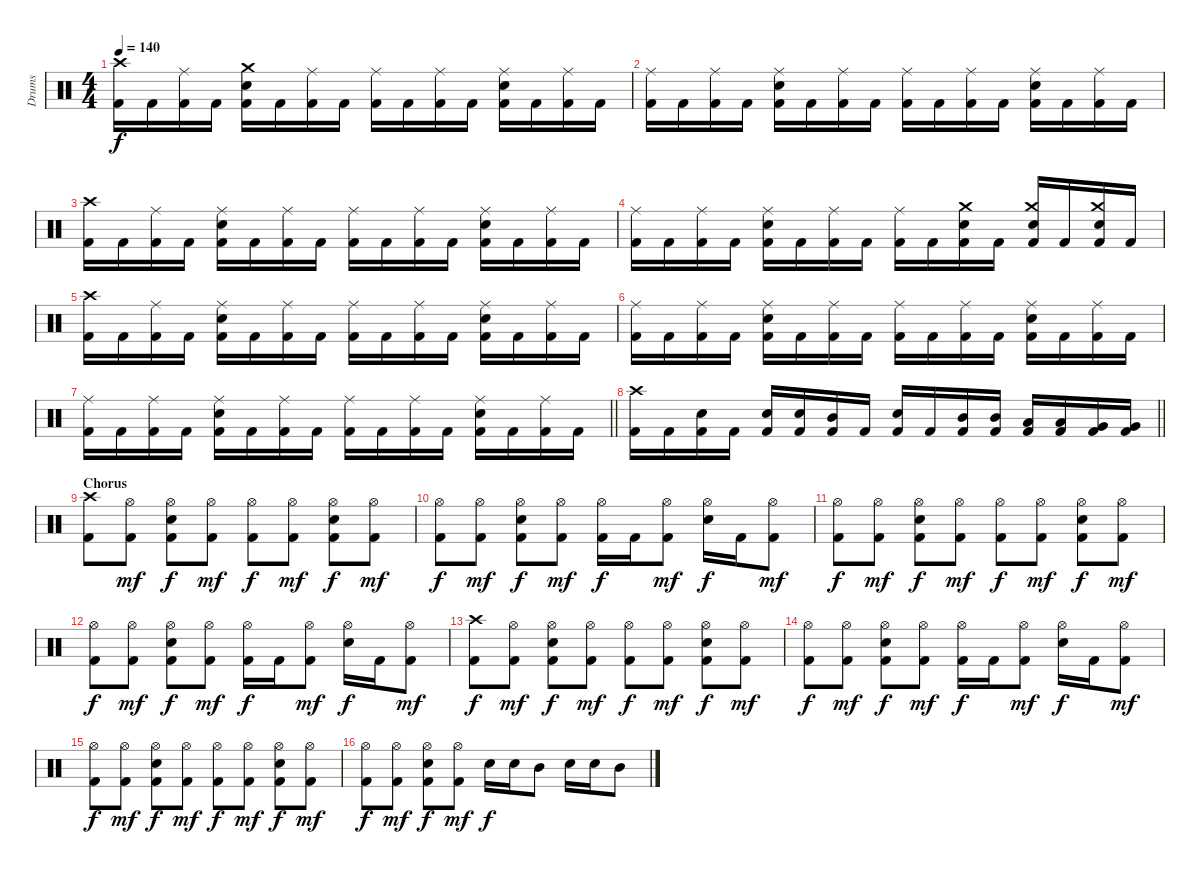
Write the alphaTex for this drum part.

\track ("Drums" "Drums") {instrument percussion}
\staff {score}
\articulation defaults
\ts (4 4)
\tempo 140
\clef neutral
\ks c
("Crash high (hit)" "Kick (hit) 2").16{dy f} "Kick (hit) 2".16 ("Ride (middle)" "Kick (hit) 2").16 "Kick (hit) 2".16 ("Crash medium (hit)" "Electric Snare (hit)" "Kick (hit) 2").16 "Kick (hit) 2".16 ("Ride (middle)" "Kick (hit) 2").16 "Kick (hit) 2".16 ("Ride (middle)" "Kick (hit) 2").16 "Kick (hit) 2".16 ("Ride (middle)" "Kick (hit) 2").16 "Kick (hit) 2".16 ("Ride (middle)" "Electric Snare (hit)" "Kick (hit) 2").16 "Kick (hit) 2".16 ("Ride (middle)" "Kick (hit) 2").16 "Kick (hit) 2".16 |
("Ride (middle)" "Kick (hit) 2").16 "Kick (hit) 2".16 ("Ride (middle)" "Kick (hit) 2").16 "Kick (hit) 2".16 ("Ride (middle)" "Electric Snare (hit)" "Kick (hit) 2").16 "Kick (hit) 2".16 ("Ride (middle)" "Kick (hit) 2").16 "Kick (hit) 2".16 ("Ride (middle)" "Kick (hit) 2").16 "Kick (hit) 2".16 ("Ride (middle)" "Kick (hit) 2").16 "Kick (hit) 2".16 ("Ride (middle)" "Electric Snare (hit)" "Kick (hit) 2").16 "Kick (hit) 2".16 ("Ride (middle)" "Kick (hit) 2").16 "Kick (hit) 2".16 |
("Crash high (hit)" "Kick (hit) 2").16 "Kick (hit) 2".16 ("Ride (middle)" "Kick (hit) 2").16 "Kick (hit) 2".16 ("Ride (middle)" "Electric Snare (hit)" "Kick (hit) 2").16 "Kick (hit) 2".16 ("Ride (middle)" "Kick (hit) 2").16 "Kick (hit) 2".16 ("Ride (middle)" "Kick (hit) 2").16 "Kick (hit) 2".16 ("Ride (middle)" "Kick (hit) 2").16 "Kick (hit) 2".16 ("Ride (middle)" "Electric Snare (hit)" "Kick (hit) 2").16 "Kick (hit) 2".16 ("Ride (middle)" "Kick (hit) 2").16 "Kick (hit) 2".16 |
("Ride (middle)" "Kick (hit) 2").16 "Kick (hit) 2".16 ("Ride (middle)" "Kick (hit) 2").16 "Kick (hit) 2".16 ("Ride (middle)" "Electric Snare (hit)" "Kick (hit) 2").16 "Kick (hit) 2".16 ("Ride (middle)" "Kick (hit) 2").16 "Kick (hit) 2".16 ("Ride (middle)" "Kick (hit) 2").16 "Kick (hit) 2".16 ("Crash medium (hit)" "Electric Snare (hit)" "Kick (hit) 2").16 "Kick (hit) 2".16 ("Crash medium (hit)" "Electric Snare (hit)" "Kick (hit) 2").16 "Kick (hit) 2".16 ("Crash medium (hit)" "Electric Snare (hit)" "Kick (hit) 2").16 "Kick (hit) 2".16 |
("Crash high (hit)" "Kick (hit) 2").16 "Kick (hit) 2".16 ("Ride (middle)" "Kick (hit) 2").16 "Kick (hit) 2".16 ("Ride (middle)" "Electric Snare (hit)" "Kick (hit) 2").16 "Kick (hit) 2".16 ("Ride (middle)" "Kick (hit) 2").16 "Kick (hit) 2".16 ("Ride (middle)" "Kick (hit) 2").16 "Kick (hit) 2".16 ("Ride (middle)" "Kick (hit) 2").16 "Kick (hit) 2".16 ("Ride (middle)" "Electric Snare (hit)" "Kick (hit) 2").16 "Kick (hit) 2".16 ("Ride (middle)" "Kick (hit) 2").16 "Kick (hit) 2".16 |
("Ride (middle)" "Kick (hit) 2").16 "Kick (hit) 2".16 ("Ride (middle)" "Kick (hit) 2").16 "Kick (hit) 2".16 ("Ride (middle)" "Electric Snare (hit)" "Kick (hit) 2").16 "Kick (hit) 2".16 ("Ride (middle)" "Kick (hit) 2").16 "Kick (hit) 2".16 ("Ride (middle)" "Kick (hit) 2").16 "Kick (hit) 2".16 ("Ride (middle)" "Kick (hit) 2").16 "Kick (hit) 2".16 ("Ride (middle)" "Electric Snare (hit)" "Kick (hit) 2").16 "Kick (hit) 2".16 ("Ride (middle)" "Kick (hit) 2").16 "Kick (hit) 2".16 |
\barLineRight lightlight
("Ride (middle)" "Kick (hit) 2").16 "Kick (hit) 2".16 ("Ride (middle)" "Kick (hit) 2").16 "Kick (hit) 2".16 ("Ride (middle)" "Electric Snare (hit)" "Kick (hit) 2").16 "Kick (hit) 2".16 ("Ride (middle)" "Kick (hit) 2").16 "Kick (hit) 2".16 ("Ride (middle)" "Kick (hit) 2").16 "Kick (hit) 2".16 ("Ride (middle)" "Kick (hit) 2").16 "Kick (hit) 2".16 ("Ride (middle)" "Electric Snare (hit)" "Kick (hit) 2").16 "Kick (hit) 2".16 ("Ride (middle)" "Kick (hit) 2").16 "Kick (hit) 2".16 |
\barLineRight lightlight
("Crash high (hit)" "Kick (hit) 2").16 "Kick (hit) 2".16 ("Electric Snare (hit)" "Kick (hit) 2").16 "Kick (hit) 2".16 ("Electric Snare (hit)" "Kick (hit) 2").16 ("Electric Snare (hit)" "Kick (hit) 2").16 ("Mid Tom (hit)" "Kick (hit) 2").16 "Kick (hit) 2".16 ("Electric Snare (hit)" "Kick (hit) 2").16 "Kick (hit) 2".16 ("Mid Tom (hit)" "Kick (hit) 2").16 ("Mid Tom (hit)" "Kick (hit) 2").16 ("Low Tom (hit)" "Kick (hit) 2").16 ("Low Tom (hit)" "Kick (hit) 2").16 ("Very Low Tom (hit)" "Kick (hit) 2").16 ("Very Low Tom (hit)" "Kick (hit) 2").16 |
\section ("" "Chorus")
("Crash high (hit)" "Kick (hit) 2").8 ("Hi-Hat (open)" "Kick (hit) 2").8{dy mf} ("Hi-Hat (open)" "Electric Snare (hit)" "Kick (hit) 2").8{dy f} ("Hi-Hat (open)" "Kick (hit) 2").8{dy mf} ("Hi-Hat (open)" "Kick (hit) 2").8{dy f} ("Hi-Hat (open)" "Kick (hit) 2").8{dy mf} ("Hi-Hat (open)" "Electric Snare (hit)" "Kick (hit) 2").8{dy f} ("Hi-Hat (open)" "Kick (hit) 2").8{dy mf} |
("Hi-Hat (open)" "Kick (hit) 2").8{dy f} ("Hi-Hat (open)" "Kick (hit) 2").8{dy mf} ("Hi-Hat (open)" "Electric Snare (hit)" "Kick (hit) 2").8{dy f} ("Hi-Hat (open)" "Kick (hit) 2").8{dy mf} ("Hi-Hat (open)" "Kick (hit) 2").16{dy f} "Kick (hit) 2".16 ("Hi-Hat (open)" "Kick (hit) 2").8{dy mf} ("Hi-Hat (open)" "Electric Snare (hit)").16{dy f} "Kick (hit) 2".16 ("Hi-Hat (open)" "Kick (hit) 2").8{dy mf} |
("Hi-Hat (open)" "Kick (hit) 2").8{dy f} ("Hi-Hat (open)" "Kick (hit) 2").8{dy mf} ("Hi-Hat (open)" "Electric Snare (hit)" "Kick (hit) 2").8{dy f} ("Hi-Hat (open)" "Kick (hit) 2").8{dy mf} ("Hi-Hat (open)" "Kick (hit) 2").8{dy f} ("Hi-Hat (open)" "Kick (hit) 2").8{dy mf} ("Hi-Hat (open)" "Electric Snare (hit)" "Kick (hit) 2").8{dy f} ("Hi-Hat (open)" "Kick (hit) 2").8{dy mf} |
("Hi-Hat (open)" "Kick (hit) 2").8{dy f} ("Hi-Hat (open)" "Kick (hit) 2").8{dy mf} ("Hi-Hat (open)" "Electric Snare (hit)" "Kick (hit) 2").8{dy f} ("Hi-Hat (open)" "Kick (hit) 2").8{dy mf} ("Hi-Hat (open)" "Kick (hit) 2").16{dy f} "Kick (hit) 2".16 ("Hi-Hat (open)" "Kick (hit) 2").8{dy mf} ("Hi-Hat (open)" "Electric Snare (hit)").16{dy f} "Kick (hit) 2".16 ("Hi-Hat (open)" "Kick (hit) 2").8{dy mf} |
("Crash high (hit)" "Kick (hit) 2").8{dy f} ("Hi-Hat (open)" "Kick (hit) 2").8{dy mf} ("Hi-Hat (open)" "Electric Snare (hit)" "Kick (hit) 2").8{dy f} ("Hi-Hat (open)" "Kick (hit) 2").8{dy mf} ("Hi-Hat (open)" "Kick (hit) 2").8{dy f} ("Hi-Hat (open)" "Kick (hit) 2").8{dy mf} ("Hi-Hat (open)" "Electric Snare (hit)" "Kick (hit) 2").8{dy f} ("Hi-Hat (open)" "Kick (hit) 2").8{dy mf} |
("Hi-Hat (open)" "Kick (hit) 2").8{dy f} ("Hi-Hat (open)" "Kick (hit) 2").8{dy mf} ("Hi-Hat (open)" "Electric Snare (hit)" "Kick (hit) 2").8{dy f} ("Hi-Hat (open)" "Kick (hit) 2").8{dy mf} ("Hi-Hat (open)" "Kick (hit) 2").16{dy f} "Kick (hit) 2".16 ("Hi-Hat (open)" "Kick (hit) 2").8{dy mf} ("Hi-Hat (open)" "Electric Snare (hit)").16{dy f} "Kick (hit) 2".16 ("Hi-Hat (open)" "Kick (hit) 2").8{dy mf} |
("Hi-Hat (open)" "Kick (hit) 2").8{dy f} ("Hi-Hat (open)" "Kick (hit) 2").8{dy mf} ("Hi-Hat (open)" "Electric Snare (hit)" "Kick (hit) 2").8{dy f} ("Hi-Hat (open)" "Kick (hit) 2").8{dy mf} ("Hi-Hat (open)" "Kick (hit) 2").8{dy f} ("Hi-Hat (open)" "Kick (hit) 2").8{dy mf} ("Hi-Hat (open)" "Electric Snare (hit)" "Kick (hit) 2").8{dy f} ("Hi-Hat (open)" "Kick (hit) 2").8{dy mf} |
("Hi-Hat (open)" "Kick (hit) 2").8{dy f} ("Hi-Hat (open)" "Kick (hit) 2").8{dy mf} ("Hi-Hat (open)" "Electric Snare (hit)" "Kick (hit) 2").8{dy f} ("Hi-Hat (open)" "Kick (hit) 2").8{dy mf} "Electric Snare (hit)".16{dy f} "Electric Snare (hit)".16 "Mid Tom (hit)".8 "Electric Snare (hit)".16 "Electric Snare (hit)".16 "Mid Tom (hit)".8
